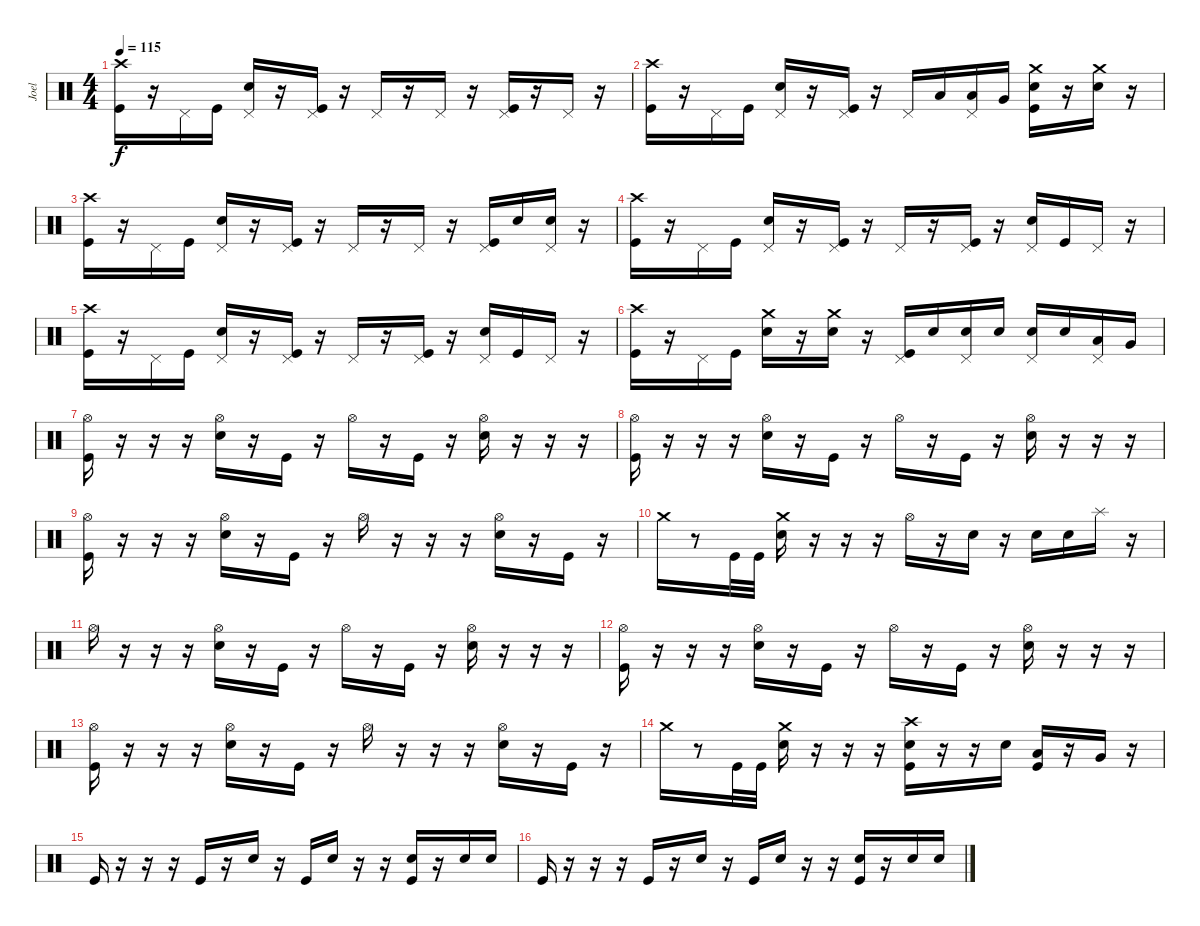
\track ("Joel" "Joel") {instrument percussion}
\staff {score}
\articulation defaults
\ts (4 4)
\tempo 115
\clef neutral
\ks c
("Crash high (hit)" "Kick (hit)").16{dy f} r.16 "Pedal Hi-Hat (hit)".16 "Kick (hit)".16 ("Pedal Hi-Hat (hit)" "Electric Snare (hit)").16 r.16 ("Pedal Hi-Hat (hit)" "Kick (hit)").16 r.16 "Pedal Hi-Hat (hit)".16 r.16 "Pedal Hi-Hat (hit)".16 r.16 ("Pedal Hi-Hat (hit)" "Kick (hit)").16 r.16 "Pedal Hi-Hat (hit)".16 r.16 |
("Crash high (hit)" "Kick (hit)").16 r.16 "Pedal Hi-Hat (hit)".16 "Kick (hit)".16 ("Pedal Hi-Hat (hit)" "Electric Snare (hit)").16 r.16 ("Pedal Hi-Hat (hit)" "Kick (hit)").16 r.16 "Pedal Hi-Hat (hit)".16 "Low Tom (hit)".16 ("Pedal Hi-Hat (hit)" "Low Tom (hit)").16 "Very Low Tom (hit)".16 ("Crash medium (hit)" "Electric Snare (hit)" "Kick (hit)").16 r.16 ("Crash medium (hit)" "Electric Snare (hit)").16 r.16 |
("Crash high (hit)" "Kick (hit)").16 r.16 "Pedal Hi-Hat (hit)".16 "Kick (hit)".16 ("Pedal Hi-Hat (hit)" "Electric Snare (hit)").16 r.16 ("Pedal Hi-Hat (hit)" "Kick (hit)").16 r.16 "Pedal Hi-Hat (hit)".16 r.16 "Pedal Hi-Hat (hit)".16 r.16 ("Pedal Hi-Hat (hit)" "Kick (hit)").16 "Electric Snare (hit)".16 ("Pedal Hi-Hat (hit)" "Electric Snare (hit)").16 r.16 |
("Crash high (hit)" "Kick (hit)").16 r.16 "Pedal Hi-Hat (hit)".16 "Kick (hit)".16 ("Pedal Hi-Hat (hit)" "Electric Snare (hit)").16 r.16 ("Pedal Hi-Hat (hit)" "Kick (hit)").16 r.16 "Pedal Hi-Hat (hit)".16 r.16 ("Pedal Hi-Hat (hit)" "Kick (hit)").16 r.16 ("Pedal Hi-Hat (hit)" "Electric Snare (hit)").16 "Kick (hit)".16 "Pedal Hi-Hat (hit)".16 r.16 |
("Crash high (hit)" "Kick (hit)").16 r.16 "Pedal Hi-Hat (hit)".16 "Kick (hit)".16 ("Pedal Hi-Hat (hit)" "Electric Snare (hit)").16 r.16 ("Pedal Hi-Hat (hit)" "Kick (hit)").16 r.16 "Pedal Hi-Hat (hit)".16 r.16 ("Pedal Hi-Hat (hit)" "Kick (hit)").16 r.16 ("Pedal Hi-Hat (hit)" "Electric Snare (hit)").16 "Kick (hit)".16 "Pedal Hi-Hat (hit)".16 r.16 |
("Crash high (hit)" "Kick (hit)").16 r.16 "Pedal Hi-Hat (hit)".16 "Kick (hit)".16 ("Crash medium (hit)" "Electric Snare (hit)").16 r.16 ("Crash medium (hit)" "Electric Snare (hit)").16 r.16 ("Pedal Hi-Hat (hit)" "Kick (hit)").16 "Electric Snare (hit)".16 ("Pedal Hi-Hat (hit)" "Electric Snare (hit)").16 "Electric Snare (hit)".16 ("Pedal Hi-Hat (hit)" "Electric Snare (hit)").16 "Electric Snare (hit)".16 ("Pedal Hi-Hat (hit)" "Low Tom (hit)").16 "Very Low Tom (hit)".16 |
("Hi-Hat (open)" "Kick (hit)").16 r.16 r.16 r.16 ("Hi-Hat (open)" "Electric Snare (hit)").16 r.16 "Kick (hit)".16 r.16 "Hi-Hat (open)".16 r.16 "Kick (hit)".16 r.16 ("Hi-Hat (open)" "Electric Snare (hit)").16 r.16 r.16 r.16 |
("Hi-Hat (open)" "Kick (hit)").16 r.16 r.16 r.16 ("Hi-Hat (open)" "Electric Snare (hit)").16 r.16 "Kick (hit)".16 r.16 "Hi-Hat (open)".16 r.16 "Kick (hit)".16 r.16 ("Hi-Hat (open)" "Electric Snare (hit)").16 r.16 r.16 r.16 |
("Hi-Hat (open)" "Kick (hit)").16 r.16 r.16 r.16 ("Hi-Hat (open)" "Electric Snare (hit)").16 r.16 "Kick (hit)".16 r.16 "Hi-Hat (open)".16 r.16 r.16 r.16 ("Hi-Hat (open)" "Electric Snare (hit)").16 r.16 "Kick (hit)".16 r.16 |
"Crash medium (hit)".16 r.8 "Kick (hit)".32 "Kick (hit)".32 ("Crash medium (hit)" "Electric Snare (hit)").16 r.16 r.16 r.16 "Hi-Hat (open)".16 r.16 "Electric Snare (hit)".16 r.16 "Electric Snare (hit)".16 "Electric Snare (hit)".16 "Splash (hit)".16 r.16 |
"Hi-Hat (open)".16 r.16 r.16 r.16 ("Hi-Hat (open)" "Electric Snare (hit)").16 r.16 "Kick (hit)".16 r.16 "Hi-Hat (open)".16 r.16 "Kick (hit)".16 r.16 ("Hi-Hat (open)" "Electric Snare (hit)").16 r.16 r.16 r.16 |
("Hi-Hat (open)" "Kick (hit)").16 r.16 r.16 r.16 ("Hi-Hat (open)" "Electric Snare (hit)").16 r.16 "Kick (hit)".16 r.16 "Hi-Hat (open)".16 r.16 "Kick (hit)".16 r.16 ("Hi-Hat (open)" "Electric Snare (hit)").16 r.16 r.16 r.16 |
("Hi-Hat (open)" "Kick (hit)").16 r.16 r.16 r.16 ("Hi-Hat (open)" "Electric Snare (hit)").16 r.16 "Kick (hit)".16 r.16 "Hi-Hat (open)".16 r.16 r.16 r.16 ("Hi-Hat (open)" "Electric Snare (hit)").16 r.16 "Kick (hit)".16 r.16 |
"Crash medium (hit)".16 r.8 "Kick (hit)".32 "Kick (hit)".32 ("Crash medium (hit)" "Electric Snare (hit)").16 r.16 r.16 r.16 ("Crash high (hit)" "Electric Snare (hit)" "Kick (hit)").16 r.16 r.16 "Electric Snare (hit)".16 ("Low Tom (hit)" "Kick (hit)").16 r.16 "Very Low Tom (hit)".16 r.16 |
"Kick (hit)".16 r.16 r.16 r.16 "Kick (hit)".16 r.16 "Electric Snare (hit)".16 r.16 "Kick (hit)".16 "Electric Snare (hit)".16 r.16 r.16 ("Electric Snare (hit)" "Kick (hit)").16 r.16 "Electric Snare (hit)".16 "Electric Snare (hit)".16 |
"Kick (hit)".16 r.16 r.16 r.16 "Kick (hit)".16 r.16 "Electric Snare (hit)".16 r.16 "Kick (hit)".16 "Electric Snare (hit)".16 r.16 r.16 ("Electric Snare (hit)" "Kick (hit)").16 r.16 "Electric Snare (hit)".16 "Electric Snare (hit)".16
